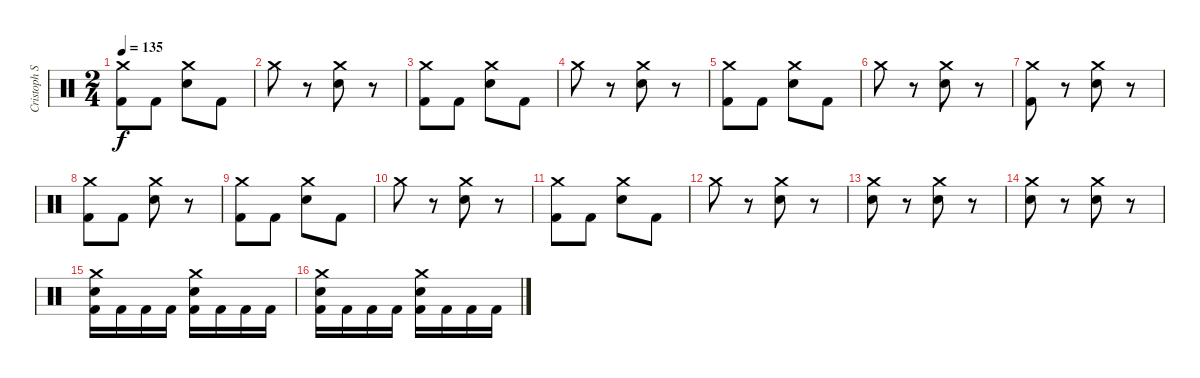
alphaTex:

\track ("Cristoph Schneider / Drums" "Cristoph S") {instrument percussion}
\staff {score}
\articulation defaults
\ts (2 4)
\tempo 135
\clef neutral
\ks c
("Crash medium (hit)" "Kick (hit) 2").8{dy f} "Kick (hit) 2".8 ("Crash medium (hit)" "Electric Snare (hit)").8 "Kick (hit) 2".8 |
"Crash medium (hit)".8 r.8 ("Crash medium (hit)" "Electric Snare (hit)").8 r.8 |
("Crash medium (hit)" "Kick (hit) 2").8 "Kick (hit) 2".8 ("Crash medium (hit)" "Electric Snare (hit)").8 "Kick (hit) 2".8 |
"Crash medium (hit)".8 r.8 ("Crash medium (hit)" "Electric Snare (hit)").8 r.8 |
("Crash medium (hit)" "Kick (hit) 2").8 "Kick (hit) 2".8 ("Crash medium (hit)" "Electric Snare (hit)").8 "Kick (hit) 2".8 |
"Crash medium (hit)".8 r.8 ("Crash medium (hit)" "Electric Snare (hit)").8 r.8 |
("Crash medium (hit)" "Kick (hit) 2").8 r.8 ("Crash medium (hit)" "Electric Snare (hit)").8 r.8 |
("Kick (hit) 2" "Crash medium (hit)").8 "Kick (hit) 2".8 ("Crash medium (hit)" "Electric Snare (hit)").8 r.8 |
("Crash medium (hit)" "Kick (hit) 2").8 "Kick (hit) 2".8 ("Crash medium (hit)" "Electric Snare (hit)").8 "Kick (hit) 2".8 |
"Crash medium (hit)".8 r.8 ("Crash medium (hit)" "Electric Snare (hit)").8 r.8 |
("Crash medium (hit)" "Kick (hit) 2").8 "Kick (hit) 2".8 ("Crash medium (hit)" "Electric Snare (hit)").8 "Kick (hit) 2".8 |
"Crash medium (hit)".8 r.8 ("Crash medium (hit)" "Electric Snare (hit)").8 r.8 |
("Crash medium (hit)" "Electric Snare (hit)").8 r.8 ("Crash medium (hit)" "Electric Snare (hit)").8 r.8 |
("Crash medium (hit)" "Electric Snare (hit)").8 r.8 ("Crash medium (hit)" "Electric Snare (hit)").8 r.8 |
("Kick (hit) 2" "Electric Snare (hit)" "Crash medium (hit)").16 "Kick (hit) 2".16 "Kick (hit) 2".16 "Kick (hit) 2".16 ("Kick (hit) 2" "Electric Snare (hit)" "Crash medium (hit)").16 "Kick (hit) 2".16 "Kick (hit) 2".16 "Kick (hit) 2".16 |
("Kick (hit) 2" "Electric Snare (hit)" "Crash medium (hit)").16 "Kick (hit) 2".16 "Kick (hit) 2".16 "Kick (hit) 2".16 ("Kick (hit) 2" "Electric Snare (hit)" "Crash medium (hit)").16 "Kick (hit) 2".16 "Kick (hit) 2".16 "Kick (hit) 2".16
